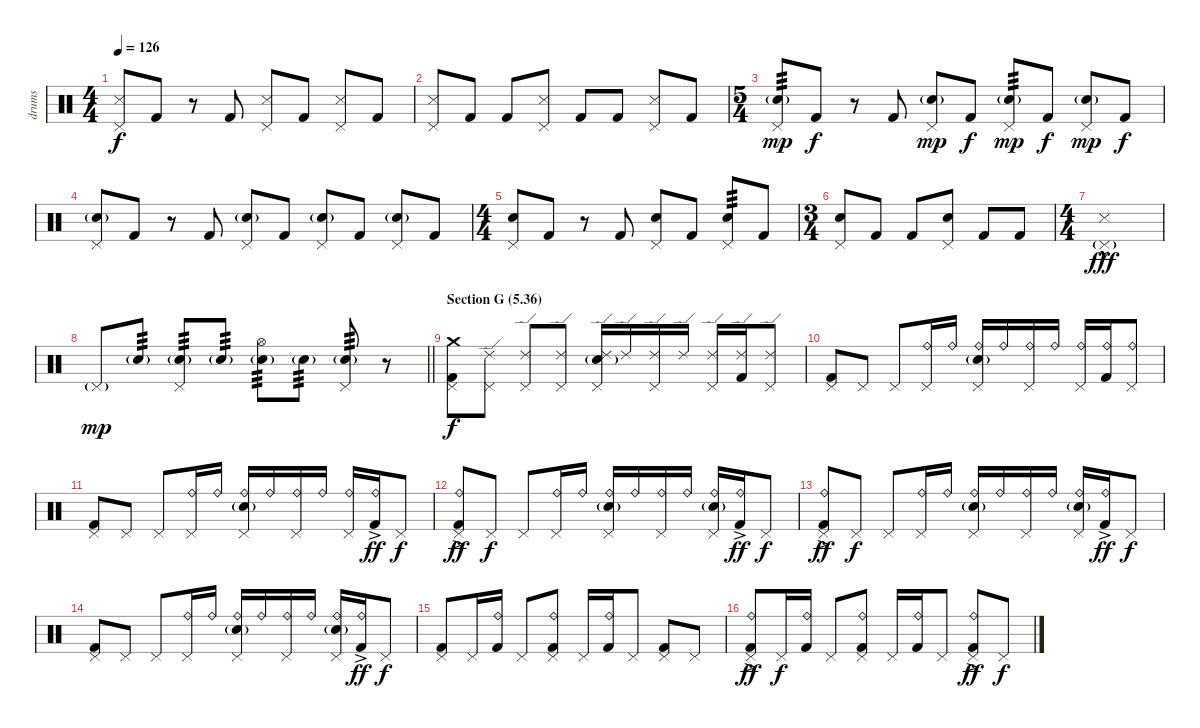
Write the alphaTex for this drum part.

\track ("drums" "drums") {instrument percussion}
\staff {score}
\articulation defaults
\ts (4 4)
\tempo 126
\clef neutral
\ks c
("Pedal Hi-Hat (hit)" "Snare (side stick) 3").8{dy f} "Kick (hit) 2".8 r.8 "Kick (hit) 2".8 ("Pedal Hi-Hat (hit)" "Snare (side stick) 3").8 "Kick (hit) 2".8 ("Pedal Hi-Hat (hit)" "Snare (side stick) 3").8 "Kick (hit) 2".8 |
("Pedal Hi-Hat (hit)" "Snare (side stick) 3").8 "Kick (hit) 2".8 "Kick (hit) 2".8 ("Pedal Hi-Hat (hit)" "Snare (side stick) 3").8 "Kick (hit) 2".8 "Kick (hit) 2".8 ("Pedal Hi-Hat (hit)" "Snare (side stick) 3").8 "Kick (hit) 2".8 |
\ts (5 4)
("Pedal Hi-Hat (hit)" "Electric Snare (hit)"{g}).8{tp 3 dy mp} "Kick (hit) 2".8{dy f} r.8 "Kick (hit) 2".8 ("Pedal Hi-Hat (hit)" "Electric Snare (hit)"{g}).8{dy mp} "Kick (hit) 2".8{dy f} ("Pedal Hi-Hat (hit)" "Electric Snare (hit)"{g}).8{tp 3 dy mp} "Kick (hit) 2".8{dy f} ("Pedal Hi-Hat (hit)" "Electric Snare (hit)"{g}).8{dy mp} "Kick (hit) 2".8{dy f} |
("Pedal Hi-Hat (hit)" "Electric Snare (hit)"{g}).8 "Kick (hit) 2".8 r.8 "Kick (hit) 2".8 ("Pedal Hi-Hat (hit)" "Electric Snare (hit)"{g}).8 "Kick (hit) 2".8 ("Pedal Hi-Hat (hit)" "Electric Snare (hit)"{g}).8 "Kick (hit) 2".8 ("Pedal Hi-Hat (hit)" "Electric Snare (hit)"{g}).8 "Kick (hit) 2".8 |
\ts (4 4)
("Pedal Hi-Hat (hit)" "Electric Snare (hit)").8 "Kick (hit) 2".8 r.8 "Kick (hit) 2".8 ("Pedal Hi-Hat (hit)" "Electric Snare (hit)").8 "Kick (hit) 2".8 ("Pedal Hi-Hat (hit)" "Electric Snare (hit)").8{tp 3} "Kick (hit) 2".8 |
\ts (3 4)
("Pedal Hi-Hat (hit)" "Electric Snare (hit)").8 "Kick (hit) 2".8 "Kick (hit) 2".8 ("Pedal Hi-Hat (hit)" "Electric Snare (hit)").8 "Kick (hit) 2".8 "Kick (hit) 2".8 |
\ts (4 4)
("Pedal Hi-Hat (hit)"{g} "Snare (side stick) 3"{hac}).1{dy fff} |
\barLineRight lightlight "Pedal Hi-Hat (hit)"{g}.8{dy mp} "Electric Snare (hit)"{g}.8{tp 3}
("Pedal Hi-Hat (hit)" "Electric Snare (hit)"{g}).8{tp 3} "Electric Snare (hit)"{g}.8{tp 3} ("Hi-Hat (open)" "Electric Snare (hit)"{g}).8{tp 3} "Electric Snare (hit)"{g}.8{tp 3} ("Pedal Hi-Hat (hit)" "Electric Snare (hit)"{g}).8{tp 3} r.8 |
\section ("" "Section G (5.36)")
("Pedal Hi-Hat (hit)" "Crash medium (hit)" "Kick (hit) 2").8{dy f} ("Pedal Hi-Hat (hit)" "Ride (edge) 2").8 ("Pedal Hi-Hat (hit)" "Ride (edge) 2").8 ("Pedal Hi-Hat (hit)" "Ride (edge) 2").8 ("Pedal Hi-Hat (hit)" "Ride (edge) 2" "Electric Snare (hit)"{g}).16 "Ride (edge) 2".16 ("Pedal Hi-Hat (hit)" "Ride (edge) 2").16 "Ride (edge) 2".16 ("Pedal Hi-Hat (hit)" "Ride (edge) 2").16 ("Ride (edge) 2" "Kick (hit) 2").16 ("Pedal Hi-Hat (hit)" "Ride (edge) 2").8 |
("Pedal Hi-Hat (hit)" "Kick (hit) 2").8 "Pedal Hi-Hat (hit)".8 "Pedal Hi-Hat (hit)".8 ("Pedal Hi-Hat (hit)" "Ride (bell)").16 "Ride (bell)".16 ("Pedal Hi-Hat (hit)" "Ride (bell)" "Electric Snare (hit)"{g}).16 "Ride (bell)".16 ("Pedal Hi-Hat (hit)" "Ride (bell)").16 "Ride (bell)".16 ("Pedal Hi-Hat (hit)" "Ride (bell)").16 ("Ride (bell)" "Kick (hit) 2").16 ("Pedal Hi-Hat (hit)" "Ride (bell)").8 |
("Pedal Hi-Hat (hit)" "Kick (hit) 2").8 "Pedal Hi-Hat (hit)".8 "Pedal Hi-Hat (hit)".8 ("Pedal Hi-Hat (hit)" "Ride (bell)").16 "Ride (bell)".16 ("Pedal Hi-Hat (hit)" "Ride (bell)" "Electric Snare (hit)"{g}).16 "Ride (bell)".16 ("Pedal Hi-Hat (hit)" "Ride (bell)").16 "Ride (bell)".16 ("Pedal Hi-Hat (hit)" "Ride (bell)").16 ("Ride (bell)"{ac} "Kick (hit) 2").16{dy ff} "Pedal Hi-Hat (hit)".8{dy f} |
("Pedal Hi-Hat (hit)" "Ride (bell)"{ac} "Kick (hit) 2").8{dy ff} "Pedal Hi-Hat (hit)".8{dy f} "Pedal Hi-Hat (hit)".8 ("Pedal Hi-Hat (hit)" "Ride (bell)").16 "Ride (bell)".16 ("Pedal Hi-Hat (hit)" "Ride (bell)" "Electric Snare (hit)"{g}).16 "Ride (bell)".16 ("Pedal Hi-Hat (hit)" "Ride (bell)").16 "Ride (bell)".16 ("Pedal Hi-Hat (hit)" "Ride (bell)" "Electric Snare (hit)"{g}).16 ("Ride (bell)"{ac} "Kick (hit) 2").16{dy ff} "Pedal Hi-Hat (hit)".8{dy f} |
("Pedal Hi-Hat (hit)" "Ride (bell)"{ac} "Kick (hit) 2").8{dy ff} "Pedal Hi-Hat (hit)".8{dy f} "Pedal Hi-Hat (hit)".8 ("Pedal Hi-Hat (hit)" "Ride (bell)").16 "Ride (bell)".16 ("Pedal Hi-Hat (hit)" "Ride (bell)" "Electric Snare (hit)"{g}).16 "Ride (bell)".16 ("Pedal Hi-Hat (hit)" "Ride (bell)").16 "Ride (bell)".16 ("Pedal Hi-Hat (hit)" "Ride (bell)" "Electric Snare (hit)"{g}).16 ("Ride (bell)"{ac} "Kick (hit) 2").16{dy ff} "Pedal Hi-Hat (hit)".8{dy f} |
("Pedal Hi-Hat (hit)" "Kick (hit) 2").8 "Pedal Hi-Hat (hit)".8 "Pedal Hi-Hat (hit)".8 ("Pedal Hi-Hat (hit)" "Ride (bell)").16 "Ride (bell)".16 ("Pedal Hi-Hat (hit)" "Ride (bell)" "Electric Snare (hit)"{g}).16 "Ride (bell)".16 ("Pedal Hi-Hat (hit)" "Ride (bell)").16 "Ride (bell)".16 ("Pedal Hi-Hat (hit)" "Ride (bell)" "Electric Snare (hit)"{g}).16 ("Ride (bell)"{ac} "Kick (hit) 2").16{dy ff} "Pedal Hi-Hat (hit)".8{dy f} |
("Pedal Hi-Hat (hit)" "Kick (hit) 2").8 "Pedal Hi-Hat (hit)".16 ("Ride (bell)" "Kick (hit) 2").16 "Pedal Hi-Hat (hit)".8 ("Pedal Hi-Hat (hit)" "Ride (bell)" "Kick (hit) 2").8 "Pedal Hi-Hat (hit)".16 ("Ride (bell)" "Kick (hit) 2").16 "Pedal Hi-Hat (hit)".8 ("Pedal Hi-Hat (hit)" "Kick (hit) 2").8 "Pedal Hi-Hat (hit)".8 |
("Pedal Hi-Hat (hit)" "Ride (bell)"{ac} "Kick (hit) 2").8{dy ff} "Pedal Hi-Hat (hit)".16{dy f} ("Ride (bell)" "Kick (hit) 2").16 "Pedal Hi-Hat (hit)".8 ("Pedal Hi-Hat (hit)" "Ride (bell)" "Kick (hit) 2").8 "Pedal Hi-Hat (hit)".16 ("Ride (bell)" "Kick (hit) 2").16 "Pedal Hi-Hat (hit)".8 ("Pedal Hi-Hat (hit)" "Ride (bell)"{ac} "Kick (hit) 2").8{dy ff} "Pedal Hi-Hat (hit)".8{dy f}
